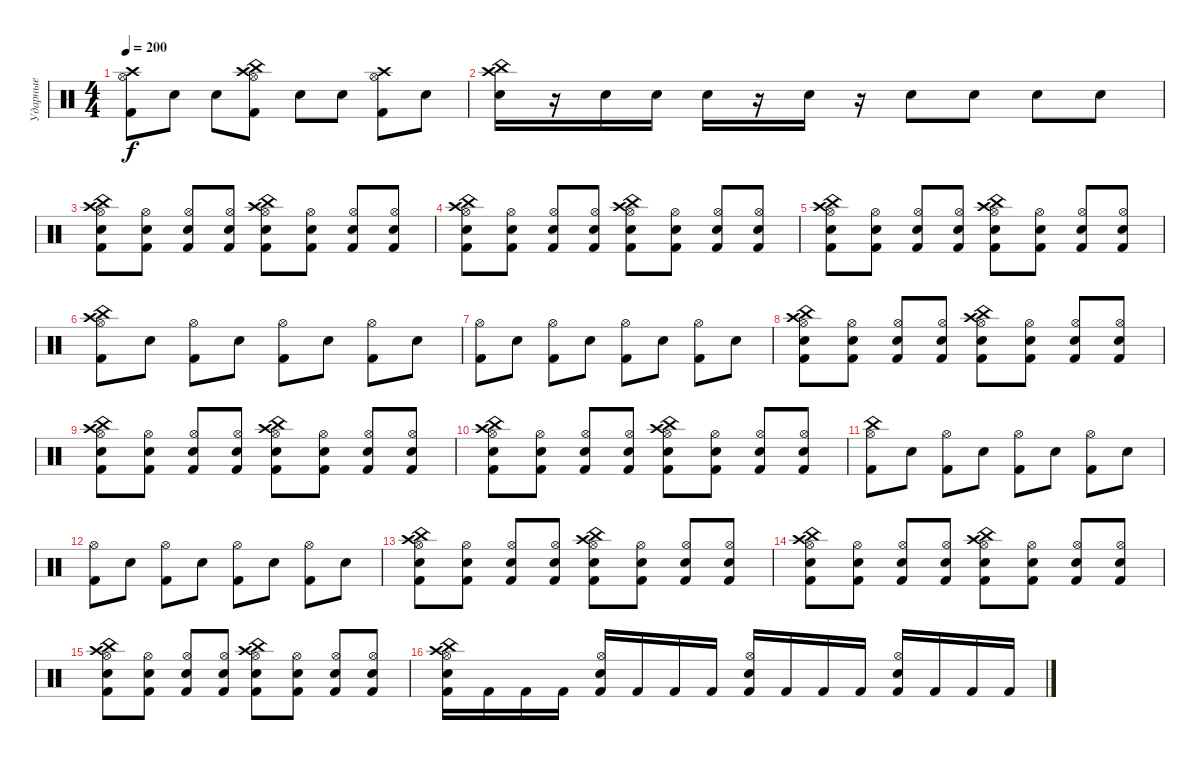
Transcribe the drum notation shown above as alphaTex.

\track ("Ударные" "Ударные") {instrument percussion}
\staff {score}
\articulation defaults
\ts (4 4)
\tempo 200
\clef neutral
\ks c
("Kick (hit) 2" "Hi-Hat (open)" "Crash high (hit)").8{dy f} "Electric Snare (hit)".8 "Electric Snare (hit)".8 ("Kick (hit) 2" "Hi-Hat (open)" "Crash high (hit)" "China (hit)").8 "Electric Snare (hit)".8 "Electric Snare (hit)".8 ("Kick (hit) 2" "Hi-Hat (open)" "Crash high (hit)").8 "Electric Snare (hit)".8 |
("Electric Snare (hit)" "Crash high (hit)" "China (hit)").16 r.16 "Electric Snare (hit)".16 "Electric Snare (hit)".16 "Electric Snare (hit)".16 r.16 "Electric Snare (hit)".16 r.16 "Electric Snare (hit)".8 "Snare (hit) 2".8 "Snare (hit) 2".8 "Snare (hit) 2".8 |
("Kick (hit) 2" "Electric Snare (hit)" "Hi-Hat (open)" "Crash high (hit)" "China (hit)").8 ("Hi-Hat (open)" "Kick (hit) 2" "Electric Snare (hit)").8 ("Electric Snare (hit)" "Kick (hit) 2" "Hi-Hat (open)").8 ("Hi-Hat (open)" "Kick (hit) 2" "Electric Snare (hit)").8 ("Electric Snare (hit)" "Kick (hit) 2" "Hi-Hat (open)" "China (hit)" "Crash high (hit)").8 ("Hi-Hat (open)" "Kick (hit) 2" "Electric Snare (hit)").8 ("Electric Snare (hit)" "Kick (hit) 2" "Hi-Hat (open)").8 ("Hi-Hat (open)" "Kick (hit) 2" "Electric Snare (hit)").8 |
("Kick (hit) 2" "Electric Snare (hit)" "Hi-Hat (open)" "Crash high (hit)" "China (hit)").8 ("Hi-Hat (open)" "Kick (hit) 2" "Electric Snare (hit)").8 ("Electric Snare (hit)" "Kick (hit) 2" "Hi-Hat (open)").8 ("Hi-Hat (open)" "Kick (hit) 2" "Electric Snare (hit)").8 ("Electric Snare (hit)" "Kick (hit) 2" "Hi-Hat (open)" "China (hit)" "Crash high (hit)").8 ("Hi-Hat (open)" "Kick (hit) 2" "Electric Snare (hit)").8 ("Electric Snare (hit)" "Kick (hit) 2" "Hi-Hat (open)").8 ("Hi-Hat (open)" "Kick (hit) 2" "Electric Snare (hit)").8 |
("Kick (hit) 2" "Electric Snare (hit)" "Hi-Hat (open)" "Crash high (hit)" "China (hit)").8 ("Hi-Hat (open)" "Kick (hit) 2" "Electric Snare (hit)").8 ("Electric Snare (hit)" "Kick (hit) 2" "Hi-Hat (open)").8 ("Hi-Hat (open)" "Kick (hit) 2" "Electric Snare (hit)").8 ("Electric Snare (hit)" "Kick (hit) 2" "Hi-Hat (open)" "China (hit)" "Crash high (hit)").8 ("Hi-Hat (open)" "Kick (hit) 2" "Electric Snare (hit)").8 ("Electric Snare (hit)" "Kick (hit) 2" "Hi-Hat (open)").8 ("Hi-Hat (open)" "Kick (hit) 2" "Electric Snare (hit)").8 |
("Kick (hit) 2" "Hi-Hat (open)" "Crash high (hit)" "China (hit)").8 "Electric Snare (hit)".8 ("Kick (hit) 2" "Hi-Hat (open)").8 "Electric Snare (hit)".8 ("Kick (hit) 2" "Hi-Hat (open)").8 "Electric Snare (hit)".8 ("Kick (hit) 2" "Hi-Hat (open)").8 "Electric Snare (hit)".8 |
("Kick (hit) 2" "Hi-Hat (open)").8 "Electric Snare (hit)".8 ("Kick (hit) 2" "Hi-Hat (open)").8 "Electric Snare (hit)".8 ("Kick (hit) 2" "Hi-Hat (open)").8 "Electric Snare (hit)".8 ("Kick (hit) 2" "Hi-Hat (open)").8 "Electric Snare (hit)".8 |
("Kick (hit) 2" "Electric Snare (hit)" "Hi-Hat (open)" "China (hit)" "Crash high (hit)").8 ("Hi-Hat (open)" "Kick (hit) 2" "Electric Snare (hit)").8 ("Electric Snare (hit)" "Kick (hit) 2" "Hi-Hat (open)").8 ("Hi-Hat (open)" "Kick (hit) 2" "Electric Snare (hit)").8 ("Electric Snare (hit)" "Kick (hit) 2" "Hi-Hat (open)" "Crash high (hit)" "China (hit)").8 ("Hi-Hat (open)" "Kick (hit) 2" "Electric Snare (hit)").8 ("Electric Snare (hit)" "Kick (hit) 2" "Hi-Hat (open)").8 ("Hi-Hat (open)" "Kick (hit) 2" "Electric Snare (hit)").8 |
("Kick (hit) 2" "Electric Snare (hit)" "Hi-Hat (open)" "China (hit)" "Crash high (hit)").8 ("Hi-Hat (open)" "Kick (hit) 2" "Electric Snare (hit)").8 ("Electric Snare (hit)" "Kick (hit) 2" "Hi-Hat (open)").8 ("Hi-Hat (open)" "Kick (hit) 2" "Electric Snare (hit)").8 ("Electric Snare (hit)" "Kick (hit) 2" "Hi-Hat (open)" "Crash high (hit)" "China (hit)").8 ("Hi-Hat (open)" "Kick (hit) 2" "Electric Snare (hit)").8 ("Electric Snare (hit)" "Kick (hit) 2" "Hi-Hat (open)").8 ("Hi-Hat (open)" "Kick (hit) 2" "Electric Snare (hit)").8 |
("Kick (hit) 2" "Electric Snare (hit)" "Hi-Hat (open)" "China (hit)" "Crash high (hit)").8 ("Hi-Hat (open)" "Kick (hit) 2" "Electric Snare (hit)").8 ("Electric Snare (hit)" "Kick (hit) 2" "Hi-Hat (open)").8 ("Hi-Hat (open)" "Kick (hit) 2" "Electric Snare (hit)").8 ("Electric Snare (hit)" "Kick (hit) 2" "Hi-Hat (open)" "Crash high (hit)" "China (hit)").8 ("Hi-Hat (open)" "Kick (hit) 2" "Electric Snare (hit)").8 ("Electric Snare (hit)" "Kick (hit) 2" "Hi-Hat (open)").8 ("Hi-Hat (open)" "Kick (hit) 2" "Electric Snare (hit)").8 |
("Kick (hit) 2" "Hi-Hat (open)" "China (hit)").8 "Electric Snare (hit)".8 ("Kick (hit) 2" "Hi-Hat (open)").8 "Electric Snare (hit)".8 ("Kick (hit) 2" "Hi-Hat (open)").8 "Electric Snare (hit)".8 ("Kick (hit) 2" "Hi-Hat (open)").8 "Electric Snare (hit)".8 |
("Kick (hit) 2" "Hi-Hat (open)").8 "Electric Snare (hit)".8 ("Kick (hit) 2" "Hi-Hat (open)").8 "Electric Snare (hit)".8 ("Kick (hit) 2" "Hi-Hat (open)").8 "Electric Snare (hit)".8 ("Kick (hit) 2" "Hi-Hat (open)").8 "Electric Snare (hit)".8 |
("Kick (hit) 2" "Electric Snare (hit)" "Hi-Hat (open)" "China (hit)" "Crash high (hit)").8 ("Hi-Hat (open)" "Kick (hit) 2" "Electric Snare (hit)").8 ("Electric Snare (hit)" "Kick (hit) 2" "Hi-Hat (open)").8 ("Hi-Hat (open)" "Kick (hit) 2" "Electric Snare (hit)").8 ("Electric Snare (hit)" "Kick (hit) 2" "Hi-Hat (open)" "Crash high (hit)" "China (hit)").8 ("Hi-Hat (open)" "Kick (hit) 2" "Electric Snare (hit)").8 ("Electric Snare (hit)" "Kick (hit) 2" "Hi-Hat (open)").8 ("Hi-Hat (open)" "Kick (hit) 2" "Electric Snare (hit)").8 |
("Kick (hit) 2" "Electric Snare (hit)" "Hi-Hat (open)" "China (hit)" "Crash high (hit)").8 ("Hi-Hat (open)" "Kick (hit) 2" "Electric Snare (hit)").8 ("Electric Snare (hit)" "Kick (hit) 2" "Hi-Hat (open)").8 ("Hi-Hat (open)" "Kick (hit) 2" "Electric Snare (hit)").8 ("Electric Snare (hit)" "Kick (hit) 2" "Hi-Hat (open)" "Crash high (hit)" "China (hit)").8 ("Hi-Hat (open)" "Kick (hit) 2" "Electric Snare (hit)").8 ("Electric Snare (hit)" "Kick (hit) 2" "Hi-Hat (open)").8 ("Hi-Hat (open)" "Kick (hit) 2" "Electric Snare (hit)").8 |
("Kick (hit) 2" "Electric Snare (hit)" "Hi-Hat (open)" "China (hit)" "Crash high (hit)").8 ("Hi-Hat (open)" "Kick (hit) 2" "Electric Snare (hit)").8 ("Electric Snare (hit)" "Kick (hit) 2" "Hi-Hat (open)").8 ("Hi-Hat (open)" "Kick (hit) 2" "Electric Snare (hit)").8 ("Electric Snare (hit)" "Kick (hit) 2" "Hi-Hat (open)" "Crash high (hit)" "China (hit)").8 ("Hi-Hat (open)" "Kick (hit) 2" "Electric Snare (hit)").8 ("Electric Snare (hit)" "Kick (hit) 2" "Hi-Hat (open)").8 ("Hi-Hat (open)" "Kick (hit) 2" "Electric Snare (hit)").8 |
("Kick (hit) 2" "Electric Snare (hit)" "Hi-Hat (open)" "Crash high (hit)" "China (hit)").16 "Kick (hit) 2".16 "Kick (hit) 2".16 "Kick (hit) 2".16 ("Kick (hit) 2" "Electric Snare (hit)" "Hi-Hat (open)").16 "Kick (hit) 2".16 "Kick (hit) 2".16 "Kick (hit) 2".16 ("Kick (hit) 2" "Electric Snare (hit)" "Hi-Hat (open)").16 "Kick (hit) 2".16 "Kick (hit) 2".16 "Kick (hit) 2".16 ("Kick (hit) 2" "Electric Snare (hit)" "Hi-Hat (open)").16 "Kick (hit) 2".16 "Kick (hit) 2".16 "Kick (hit) 2".16
